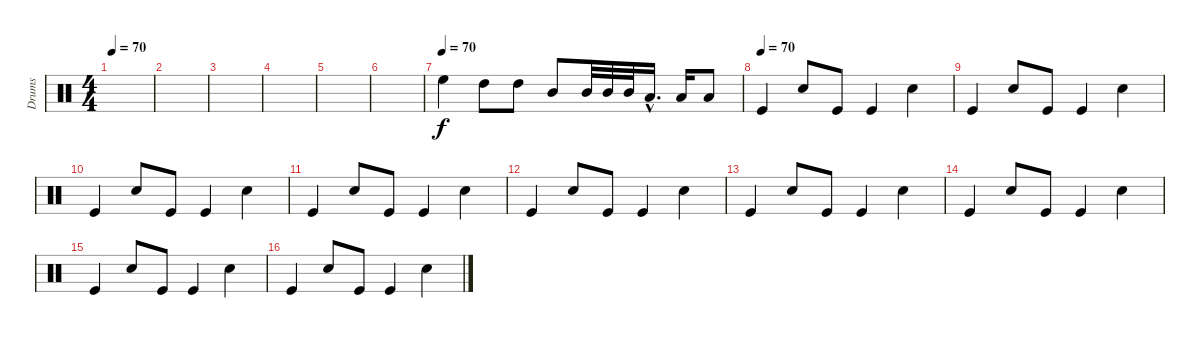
\track ("Drums" "Drums") {instrument percussion}
\staff {score}
\articulation defaults
\ts (4 4)
\tempo 70
\clef neutral
\ks c
|
|
|
|
|
|
\tempo (70)
"High Floor Tom (hit)".4 "High Tom (hit)".8 "High Tom (hit)".8 "Mid Tom (hit)".8 "Mid Tom (hit)".32 "Mid Tom (hit)".32 "Mid Tom (hit)".32 "Low Tom (hit)"{hac}.16{d} "Low Tom (hit)".16 "Low Floor Tom (hit)".8 |
\tempo (70)
"Kick (hit)".4 "Snare (hit) 2".8 "Kick (hit)".8 "Kick (hit)".4 "Snare (hit) 2".4 |
"Kick (hit)".4 "Snare (hit) 2".8 "Kick (hit)".8 "Kick (hit)".4 "Snare (hit) 2".4 |
"Kick (hit)".4 "Snare (hit) 2".8 "Kick (hit)".8 "Kick (hit)".4 "Snare (hit) 2".4 |
"Kick (hit)".4 "Snare (hit) 2".8 "Kick (hit)".8 "Kick (hit)".4 "Snare (hit) 2".4 |
"Kick (hit)".4 "Snare (hit) 2".8 "Kick (hit)".8 "Kick (hit)".4 "Snare (hit) 2".4 |
"Kick (hit)".4 "Snare (hit) 2".8 "Kick (hit)".8 "Kick (hit)".4 "Snare (hit) 2".4 |
"Kick (hit)".4 "Snare (hit) 2".8 "Kick (hit)".8 "Kick (hit)".4 "Snare (hit) 2".4 |
"Kick (hit)".4 "Snare (hit) 2".8 "Kick (hit)".8 "Kick (hit)".4 "Snare (hit) 2".4 |
"Kick (hit)".4 "Snare (hit) 2".8 "Kick (hit)".8 "Kick (hit)".4 "Snare (hit) 2".4
